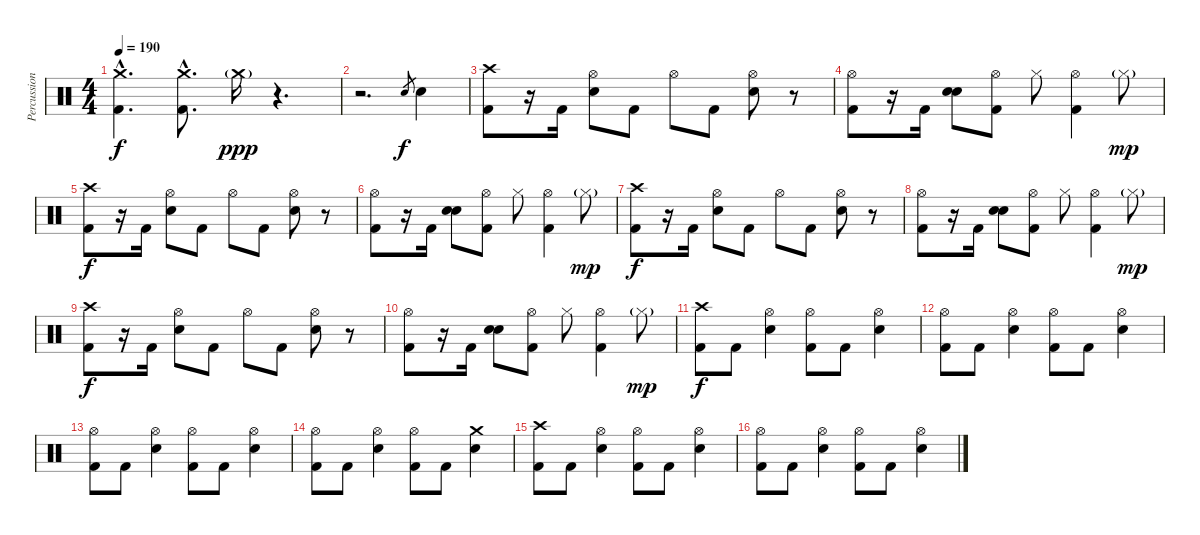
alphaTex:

\track ("Percussion" "Percussion") {instrument percussion}
\staff {score}
\articulation defaults
\ts (4 4)
\tempo 190
\clef neutral
\ks c
("Crash medium (hit)"{hac} "Kick (hit) 2"{hac}).4{d dy f} ("Crash medium (hit)"{hac} "Kick (hit) 2"{hac}).8{d} "Crash medium (hit)"{g}.16{dy ppp} r.4{d} |
r.2{d} "Snare (hit) 2".8{gr dy f} "Snare (hit) 2".4 |
("Crash high (hit)" "Kick (hit) 2").8 r.16 "Kick (hit) 2".16 ("Hi-Hat (open)" "Snare (hit) 2").8 "Kick (hit) 2".8 "Hi-Hat (open)".8 "Kick (hit) 2".8 ("Hi-Hat (open)" "Snare (hit) 2").8 r.8 |
("Hi-Hat (open)" "Kick (hit) 2").8 r.16 "Kick (hit) 2".16 ("Snare (hit) 2" "Snare (hit) 2").8 ("Hi-Hat (open)" "Kick (hit) 2").8 "Hi-Hat (closed)".8 ("Hi-Hat (open)" "Kick (hit) 2").4 "Hi-Hat (closed)"{g}.8{dy mp} |
("Crash high (hit)" "Kick (hit) 2").8{dy f} r.16 "Kick (hit) 2".16 ("Hi-Hat (open)" "Snare (hit) 2").8 "Kick (hit) 2".8 "Hi-Hat (open)".8 "Kick (hit) 2".8 ("Hi-Hat (open)" "Snare (hit) 2").8 r.8 |
("Hi-Hat (open)" "Kick (hit) 2").8 r.16 "Kick (hit) 2".16 ("Snare (hit) 2" "Snare (hit) 2").8 ("Hi-Hat (open)" "Kick (hit) 2").8 "Hi-Hat (closed)".8 ("Hi-Hat (open)" "Kick (hit) 2").4 "Hi-Hat (closed)"{g}.8{dy mp} |
("Crash high (hit)" "Kick (hit) 2").8{dy f} r.16 "Kick (hit) 2".16 ("Hi-Hat (open)" "Snare (hit) 2").8 "Kick (hit) 2".8 "Hi-Hat (open)".8 "Kick (hit) 2".8 ("Hi-Hat (open)" "Snare (hit) 2").8 r.8 |
("Hi-Hat (open)" "Kick (hit) 2").8 r.16 "Kick (hit) 2".16 ("Snare (hit) 2" "Snare (hit) 2").8 ("Hi-Hat (open)" "Kick (hit) 2").8 "Hi-Hat (closed)".8 ("Hi-Hat (open)" "Kick (hit) 2").4 "Hi-Hat (closed)"{g}.8{dy mp} |
("Crash high (hit)" "Kick (hit) 2").8{dy f} r.16 "Kick (hit) 2".16 ("Hi-Hat (open)" "Snare (hit) 2").8 "Kick (hit) 2".8 "Hi-Hat (open)".8 "Kick (hit) 2".8 ("Hi-Hat (open)" "Snare (hit) 2").8 r.8 |
("Hi-Hat (open)" "Kick (hit) 2").8 r.16 "Kick (hit) 2".16 ("Snare (hit) 2" "Snare (hit) 2").8 ("Hi-Hat (open)" "Kick (hit) 2").8 "Hi-Hat (closed)".8 ("Hi-Hat (open)" "Kick (hit) 2").4 "Hi-Hat (closed)"{g}.8{dy mp} |
("Crash high (hit)" "Kick (hit) 2").8{dy f} "Kick (hit) 2".8 ("Hi-Hat (open)" "Snare (hit) 2").4 ("Hi-Hat (open)" "Kick (hit) 2").8 "Kick (hit) 2".8 ("Hi-Hat (open)" "Snare (hit) 2").4 |
("Hi-Hat (open)" "Kick (hit) 2").8 "Kick (hit) 2".8 ("Hi-Hat (open)" "Snare (hit) 2").4 ("Hi-Hat (open)" "Kick (hit) 2").8 "Kick (hit) 2".8 ("Hi-Hat (open)" "Snare (hit) 2").4 |
("Hi-Hat (open)" "Kick (hit) 2").8 "Kick (hit) 2".8 ("Hi-Hat (open)" "Snare (hit) 2").4 ("Hi-Hat (open)" "Kick (hit) 2").8 "Kick (hit) 2".8 ("Hi-Hat (open)" "Snare (hit) 2").4 |
("Hi-Hat (open)" "Kick (hit) 2").8 "Kick (hit) 2".8 ("Hi-Hat (open)" "Snare (hit) 2").4 ("Hi-Hat (open)" "Kick (hit) 2").8 "Kick (hit) 2".8 ("Crash medium (hit)" "Snare (hit) 2").4 |
("Crash high (hit)" "Kick (hit) 2").8 "Kick (hit) 2".8 ("Hi-Hat (open)" "Snare (hit) 2").4 ("Hi-Hat (open)" "Kick (hit) 2").8 "Kick (hit) 2".8 ("Hi-Hat (open)" "Snare (hit) 2").4 |
("Hi-Hat (open)" "Kick (hit) 2").8 "Kick (hit) 2".8 ("Hi-Hat (open)" "Snare (hit) 2").4 ("Hi-Hat (open)" "Kick (hit) 2").8 "Kick (hit) 2".8 ("Hi-Hat (open)" "Snare (hit) 2").4
